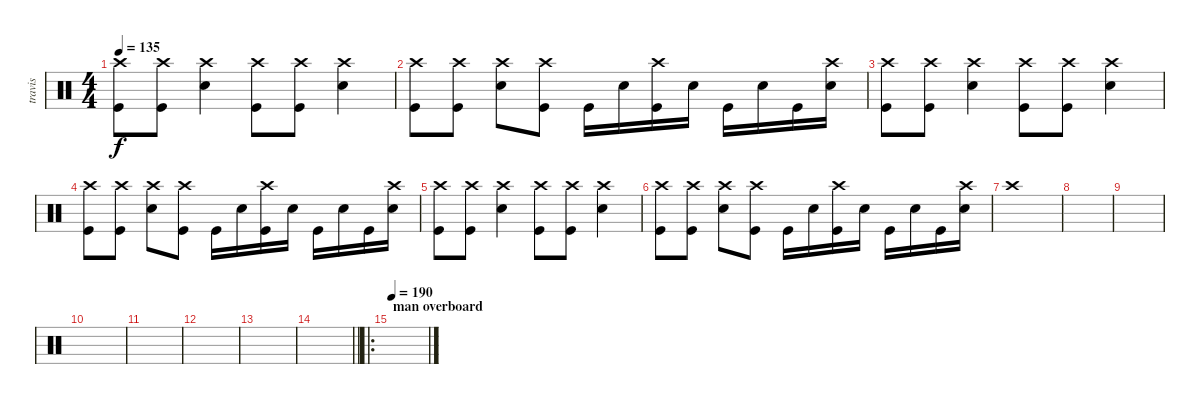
\track ("travis" "travis") {instrument percussion}
\staff {score}
\articulation defaults
\ts (4 4)
\tempo 135
\clef neutral
\ks c
("Crash high (hit)" "Kick (hit)").8{dy f} ("Crash high (hit)" "Kick (hit)").8 ("Crash high (hit)" "Electric Snare (hit)").4 ("Crash high (hit)" "Kick (hit)").8 ("Crash high (hit)" "Kick (hit)").8 ("Crash high (hit)" "Electric Snare (hit)").4 |
("Crash high (hit)" "Kick (hit)").8 ("Crash high (hit)" "Kick (hit)").8 ("Crash high (hit)" "Electric Snare (hit)").8 ("Crash high (hit)" "Kick (hit)").8 "Kick (hit)".16 "Electric Snare (hit)".16 ("Crash high (hit)" "Kick (hit)").16 "Electric Snare (hit)".16 "Kick (hit)".16 "Electric Snare (hit)".16 "Kick (hit)".16 ("Crash high (hit)" "Electric Snare (hit)").16 |
("Crash high (hit)" "Kick (hit)").8 ("Crash high (hit)" "Kick (hit)").8 ("Crash high (hit)" "Electric Snare (hit)").4 ("Crash high (hit)" "Kick (hit)").8 ("Crash high (hit)" "Kick (hit)").8 ("Crash high (hit)" "Electric Snare (hit)").4 |
("Crash high (hit)" "Kick (hit)").8 ("Crash high (hit)" "Kick (hit)").8 ("Crash high (hit)" "Electric Snare (hit)").8 ("Crash high (hit)" "Kick (hit)").8 "Kick (hit)".16 "Electric Snare (hit)".16 ("Crash high (hit)" "Kick (hit)").16 "Electric Snare (hit)".16 "Kick (hit)".16 "Electric Snare (hit)".16 "Kick (hit)".16 ("Crash high (hit)" "Electric Snare (hit)").16 |
("Crash high (hit)" "Kick (hit)").8 ("Crash high (hit)" "Kick (hit)").8 ("Crash high (hit)" "Electric Snare (hit)").4 ("Crash high (hit)" "Kick (hit)").8 ("Crash high (hit)" "Kick (hit)").8 ("Crash high (hit)" "Electric Snare (hit)").4 |
("Crash high (hit)" "Kick (hit)").8 ("Crash high (hit)" "Kick (hit)").8 ("Crash high (hit)" "Electric Snare (hit)").8 ("Crash high (hit)" "Kick (hit)").8 "Kick (hit)".16 "Electric Snare (hit)".16 ("Crash high (hit)" "Kick (hit)").16 "Electric Snare (hit)".16 "Kick (hit)".16 "Electric Snare (hit)".16 "Kick (hit)".16 ("Crash high (hit)" "Electric Snare (hit)").16 |
"Crash high (hit)".1 |
|
|
|
|
|
|
\barLineRight lightlight
|
\ro
\section ("" "man overboard")
\tempo 190
